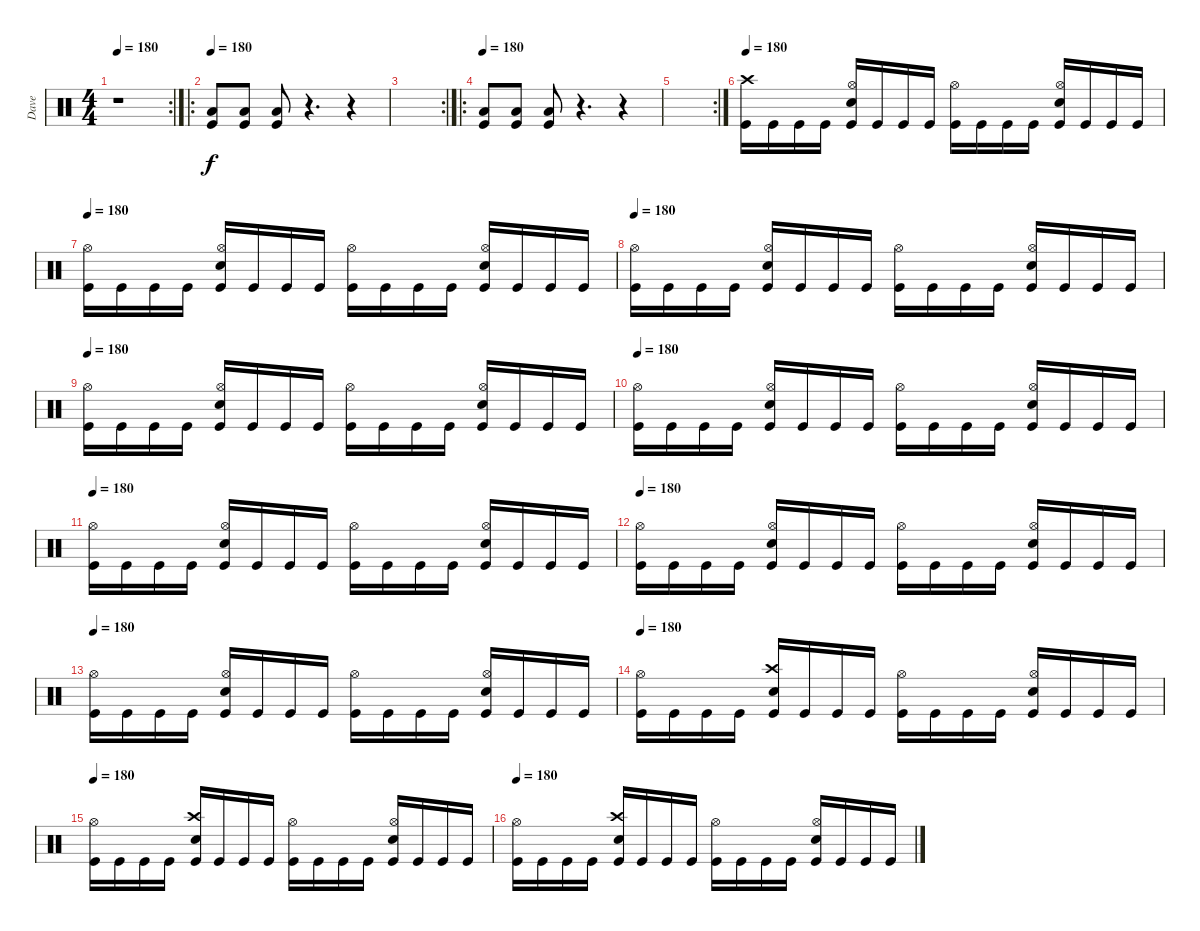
\track ("Dave" "Dave") {instrument percussion}
\staff {score}
\articulation defaults
\rc 2
\ts (4 4)
\tempo 180
\clef neutral
\ks c
r.1{dy f} |
\ro
\tempo 180
("Low Floor Tom (hit)" "Kick (hit)").8 ("Low Floor Tom (hit)" "Kick (hit)").8 ("Low Floor Tom (hit)" "Kick (hit)").8 r.4{d} r.4 |
\rc 2
|
\ro
\tempo 180
("Low Floor Tom (hit)" "Kick (hit)").8 ("Low Floor Tom (hit)" "Kick (hit)").8 ("Low Floor Tom (hit)" "Kick (hit)").8 r.4{d} r.4 |
\rc 2
|
\tempo 180
("Crash high (hit)" "Kick (hit)").16 "Kick (hit)".16 "Kick (hit)".16 "Kick (hit)".16 ("Hi-Hat (open)" "Snare (hit) 2" "Kick (hit)").16 "Kick (hit)".16 "Kick (hit)".16 "Kick (hit)".16 ("Hi-Hat (open)" "Kick (hit)").16 "Kick (hit)".16 "Kick (hit)".16 "Kick (hit)".16 ("Hi-Hat (open)" "Snare (hit) 2" "Kick (hit)").16 "Kick (hit)".16 "Kick (hit)".16 "Kick (hit)".16 |
\tempo 180
("Hi-Hat (open)" "Kick (hit)").16 "Kick (hit)".16 "Kick (hit)".16 "Kick (hit)".16 ("Hi-Hat (open)" "Snare (hit) 2" "Kick (hit)").16 "Kick (hit)".16 "Kick (hit)".16 "Kick (hit)".16 ("Hi-Hat (open)" "Kick (hit)").16 "Kick (hit)".16 "Kick (hit)".16 "Kick (hit)".16 ("Hi-Hat (open)" "Snare (hit) 2" "Kick (hit)").16 "Kick (hit)".16 "Kick (hit)".16 "Kick (hit)".16 |
\tempo 180
("Hi-Hat (open)" "Kick (hit)").16 "Kick (hit)".16 "Kick (hit)".16 "Kick (hit)".16 ("Hi-Hat (open)" "Snare (hit) 2" "Kick (hit)").16 "Kick (hit)".16 "Kick (hit)".16 "Kick (hit)".16 ("Hi-Hat (open)" "Kick (hit)").16 "Kick (hit)".16 "Kick (hit)".16 "Kick (hit)".16 ("Hi-Hat (open)" "Snare (hit) 2" "Kick (hit)").16 "Kick (hit)".16 "Kick (hit)".16 "Kick (hit)".16 |
\tempo 180
("Hi-Hat (open)" "Kick (hit)").16 "Kick (hit)".16 "Kick (hit)".16 "Kick (hit)".16 ("Hi-Hat (open)" "Snare (hit) 2" "Kick (hit)").16 "Kick (hit)".16 "Kick (hit)".16 "Kick (hit)".16 ("Hi-Hat (open)" "Kick (hit)").16 "Kick (hit)".16 "Kick (hit)".16 "Kick (hit)".16 ("Hi-Hat (open)" "Snare (hit) 2" "Kick (hit)").16 "Kick (hit)".16 "Kick (hit)".16 "Kick (hit)".16 |
\tempo 180
("Hi-Hat (open)" "Kick (hit)").16 "Kick (hit)".16 "Kick (hit)".16 "Kick (hit)".16 ("Hi-Hat (open)" "Snare (hit) 2" "Kick (hit)").16 "Kick (hit)".16 "Kick (hit)".16 "Kick (hit)".16 ("Hi-Hat (open)" "Kick (hit)").16 "Kick (hit)".16 "Kick (hit)".16 "Kick (hit)".16 ("Hi-Hat (open)" "Snare (hit) 2" "Kick (hit)").16 "Kick (hit)".16 "Kick (hit)".16 "Kick (hit)".16 |
\tempo 180
("Hi-Hat (open)" "Kick (hit)").16 "Kick (hit)".16 "Kick (hit)".16 "Kick (hit)".16 ("Hi-Hat (open)" "Snare (hit) 2" "Kick (hit)").16 "Kick (hit)".16 "Kick (hit)".16 "Kick (hit)".16 ("Hi-Hat (open)" "Kick (hit)").16 "Kick (hit)".16 "Kick (hit)".16 "Kick (hit)".16 ("Hi-Hat (open)" "Snare (hit) 2" "Kick (hit)").16 "Kick (hit)".16 "Kick (hit)".16 "Kick (hit)".16 |
\tempo 180
("Hi-Hat (open)" "Kick (hit)").16 "Kick (hit)".16 "Kick (hit)".16 "Kick (hit)".16 ("Hi-Hat (open)" "Snare (hit) 2" "Kick (hit)").16 "Kick (hit)".16 "Kick (hit)".16 "Kick (hit)".16 ("Hi-Hat (open)" "Kick (hit)").16 "Kick (hit)".16 "Kick (hit)".16 "Kick (hit)".16 ("Hi-Hat (open)" "Snare (hit) 2" "Kick (hit)").16 "Kick (hit)".16 "Kick (hit)".16 "Kick (hit)".16 |
\tempo 180
("Hi-Hat (open)" "Kick (hit)").16 "Kick (hit)".16 "Kick (hit)".16 "Kick (hit)".16 ("Hi-Hat (open)" "Snare (hit) 2" "Kick (hit)").16 "Kick (hit)".16 "Kick (hit)".16 "Kick (hit)".16 ("Hi-Hat (open)" "Kick (hit)").16 "Kick (hit)".16 "Kick (hit)".16 "Kick (hit)".16 ("Hi-Hat (open)" "Snare (hit) 2" "Kick (hit)").16 "Kick (hit)".16 "Kick (hit)".16 "Kick (hit)".16 |
\tempo 180
("Hi-Hat (open)" "Kick (hit)").16 "Kick (hit)".16 "Kick (hit)".16 "Kick (hit)".16 ("Crash high (hit)" "Snare (hit) 2" "Kick (hit)").16 "Kick (hit)".16 "Kick (hit)".16 "Kick (hit)".16 ("Hi-Hat (open)" "Kick (hit)").16 "Kick (hit)".16 "Kick (hit)".16 "Kick (hit)".16 ("Hi-Hat (open)" "Snare (hit) 2" "Kick (hit)").16 "Kick (hit)".16 "Kick (hit)".16 "Kick (hit)".16 |
\tempo 180
("Hi-Hat (open)" "Kick (hit)").16 "Kick (hit)".16 "Kick (hit)".16 "Kick (hit)".16 ("Crash high (hit)" "Snare (hit) 2" "Kick (hit)").16 "Kick (hit)".16 "Kick (hit)".16 "Kick (hit)".16 ("Hi-Hat (open)" "Kick (hit)").16 "Kick (hit)".16 "Kick (hit)".16 "Kick (hit)".16 ("Hi-Hat (open)" "Snare (hit) 2" "Kick (hit)").16 "Kick (hit)".16 "Kick (hit)".16 "Kick (hit)".16 |
\tempo 180
("Hi-Hat (open)" "Kick (hit)").16 "Kick (hit)".16 "Kick (hit)".16 "Kick (hit)".16 ("Crash high (hit)" "Snare (hit) 2" "Kick (hit)").16 "Kick (hit)".16 "Kick (hit)".16 "Kick (hit)".16 ("Hi-Hat (open)" "Kick (hit)").16 "Kick (hit)".16 "Kick (hit)".16 "Kick (hit)".16 ("Hi-Hat (open)" "Snare (hit) 2" "Kick (hit)").16 "Kick (hit)".16 "Kick (hit)".16 "Kick (hit)".16
